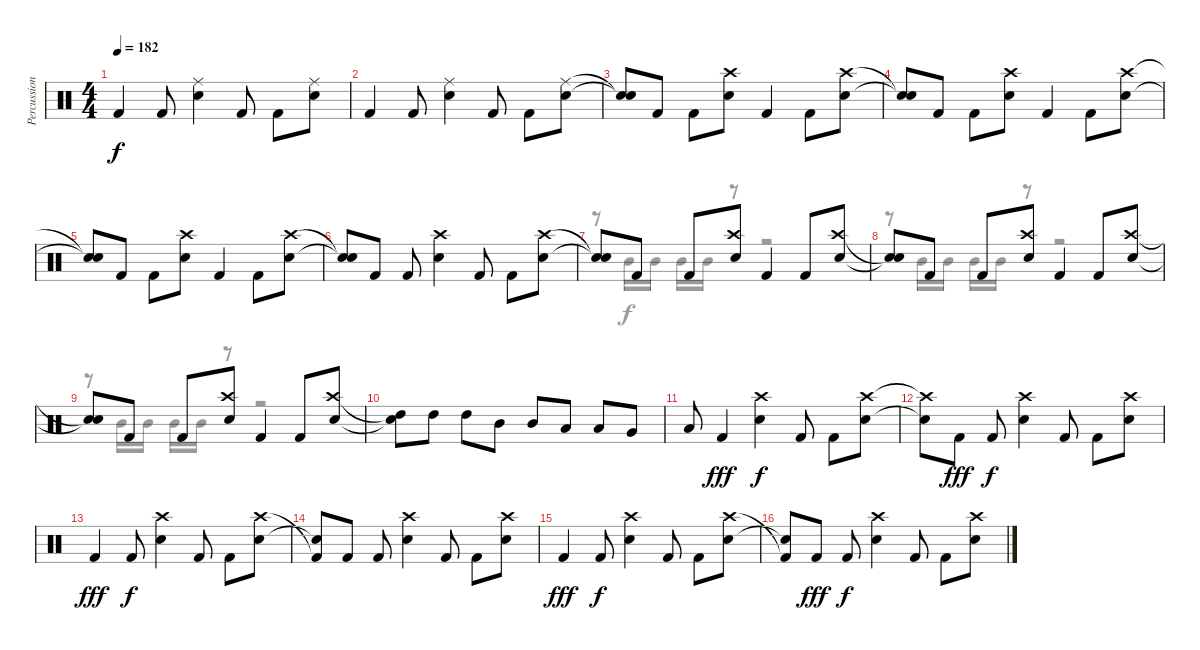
\track ("Percussion" "Percussion") {instrument percussion}
\staff {score}
\articulation defaults
\voice
\ts (4 4)
\tempo 182
\clef neutral
\ks c "Kick (hit) 2".4{dy f} "Kick (hit) 2".8
("Ride (middle)" "Snare (hit) 2").4 "Kick (hit) 2".8 "Kick (hit) 2".8 ("Ride (middle)" "Snare (hit) 2").8 |
"Kick (hit) 2".4 "Kick (hit) 2".8 ("Ride (middle)" "Snare (hit) 2").4 "Kick (hit) 2".8 "Kick (hit) 2".8 ("Ride (middle)" "Snare (hit) 2").8 |
("Snare (hit)"{t} "Snare (hit)"{t}).8 "Kick (hit) 2".8 "Kick (hit) 2".8 ("Crash high (hit)" "Snare (hit) 2").8 "Kick (hit) 2".4 "Kick (hit) 2".8 ("Crash high (hit)" "Snare (hit) 2").8 |
("Snare (hit)"{t} "Snare (hit)"{t}).8 "Kick (hit) 2".8 "Kick (hit) 2".8 ("Crash high (hit)" "Snare (hit) 2").8 "Kick (hit) 2".4 "Kick (hit) 2".8 ("Crash high (hit)" "Snare (hit) 2").8 |
("Snare (hit)"{t} "Snare (hit)"{t}).8 "Kick (hit) 2".8 "Kick (hit) 2".8 ("Crash high (hit)" "Snare (hit) 2").8 "Kick (hit) 2".4 "Kick (hit) 2".8 ("Crash high (hit)" "Snare (hit) 2").8 |
("Snare (hit)"{t} "Snare (hit)"{t}).8 "Kick (hit) 2".8 "Kick (hit) 2".8 ("Crash high (hit)" "Snare (hit) 2").4 "Kick (hit) 2".8 "Kick (hit) 2".8 ("Crash high (hit)" "Snare (hit) 2").8 |
("Snare (hit)"{t} "Snare (hit)"{t}).8 "Kick (hit) 2".8 "Kick (hit) 2".8 ("Crash high (hit)" "Snare (hit) 2").8 "Kick (hit) 2".4 "Kick (hit) 2".8 ("Crash high (hit)" "Snare (hit) 2").8 |
("Snare (hit)"{t} "Snare (hit)"{t}).8 "Kick (hit) 2".8 "Kick (hit) 2".8 ("Crash high (hit)" "Snare (hit) 2").8 "Kick (hit) 2".4 "Kick (hit) 2".8 ("Crash high (hit)" "Snare (hit) 2").8 |
("Snare (hit)"{t} "Snare (hit)"{t}).8 "Kick (hit) 2".8 "Kick (hit) 2".8 ("Crash high (hit)" "Snare (hit) 2").8 "Kick (hit) 2".4 "Kick (hit) 2".8 ("Crash high (hit)" "Snare (hit) 2").8 |
("High Tom (hit)"{t} "Snare (hit)"{t}).8 "High Tom (hit)".8 "High Tom (hit)".8 "Mid Tom (hit)".8 "Mid Tom (hit)".8 "Low Tom (hit)".8 "Low Tom (hit)".8 "Very Low Tom (hit)".8 |
"Low Floor Tom (hit)".8 "Kick (hit) 2".4{dy fff} ("Crash high (hit)" "Snare (hit) 2").4{dy f} "Kick (hit) 2".8 "Kick (hit) 2".8 ("Crash high (hit)" "Snare (hit) 2").8 |
("Crash high (hit)"{t} "Snare (hit) 2"{t}).8 "Kick (hit) 2".8{dy fff} "Kick (hit) 2".8{dy f} ("Crash high (hit)" "Snare (hit) 2").4 "Kick (hit) 2".8 "Kick (hit) 2".8 ("Crash high (hit)" "Snare (hit) 2").8 |
"Kick (hit) 2".4{dy fff} "Kick (hit) 2".8{dy f} ("Crash high (hit)" "Snare (hit) 2").4 "Kick (hit) 2".8 "Kick (hit) 2".8 ("Crash high (hit)" "Snare (hit) 2").8 |
("Kick (hit) 2"{t} "Snare (hit)"{t}).8 "Kick (hit) 2".8 "Kick (hit) 2".8 ("Crash high (hit)" "Snare (hit) 2").4 "Kick (hit) 2".8 "Kick (hit) 2".8 ("Crash high (hit)" "Snare (hit) 2").8 |
"Kick (hit) 2".4{dy fff} "Kick (hit) 2".8{dy f} ("Crash high (hit)" "Snare (hit) 2").4 "Kick (hit) 2".8 "Kick (hit) 2".8 ("Crash high (hit)" "Snare (hit) 2").8 |
("Kick (hit) 2"{t} "Snare (hit)"{t}).8 "Kick (hit) 2".8{dy fff} "Kick (hit) 2".8{dy f} ("Crash high (hit)" "Snare (hit) 2").4 "Kick (hit) 2".8 "Kick (hit) 2".8 ("Crash high (hit)" "Snare (hit) 2").8
\voice
\clef neutral
\ottava regular
\simile none
\ks c
|
|
|
|
|
|
r.8 "Mid Tom (hit)".16 "Mid Tom (hit)".16 "Mid Tom (hit)".16 "Mid Tom (hit)".16 r.8 r.2 |
r.8 "Mid Tom (hit)".16 "Mid Tom (hit)".16 "Mid Tom (hit)".16 "Mid Tom (hit)".16 r.8 r.2 |
r.8 "Mid Tom (hit)".16 "Mid Tom (hit)".16 "Mid Tom (hit)".16 "Mid Tom (hit)".16 r.8 r.2 |
|
|
|
|
|
|
